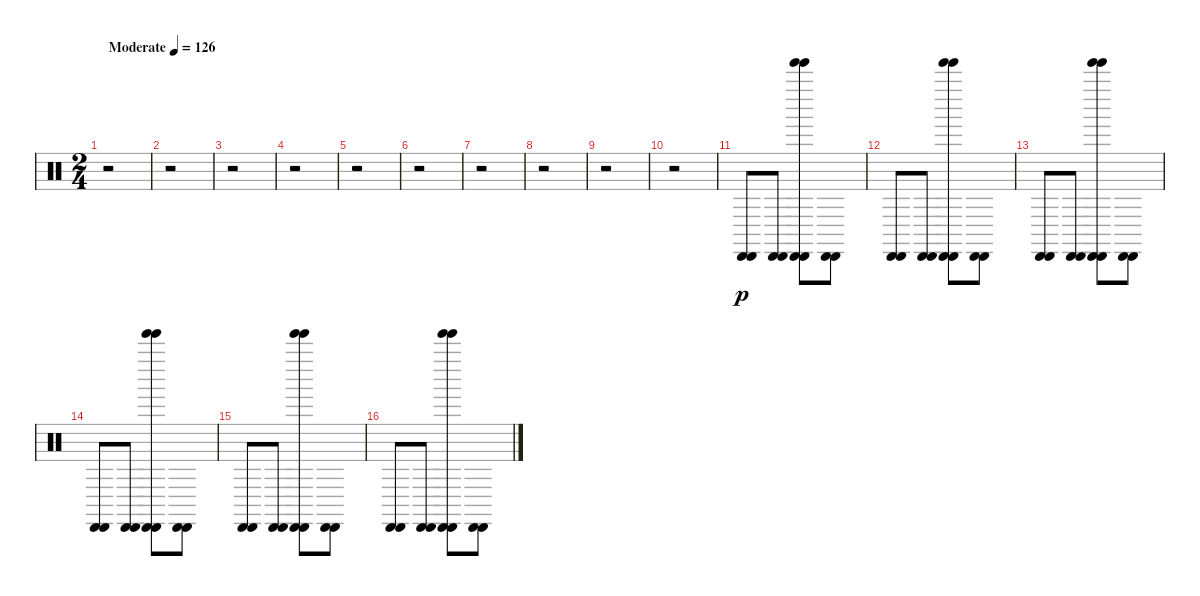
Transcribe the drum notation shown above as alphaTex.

\track "" {instrument percussion}
\staff {score}
\articulation defaults
\ts (2 4)
\tempo (126 "Moderate")
\clef neutral
\ks c
r.2{dy p} |
r.2 |
r.2 |
r.2 |
r.2 |
r.2 |
r.2 |
r.2 |
r.2 |
r.2 |
("Cabasa (hit)" "Cabasa (hit)").8 ("Cabasa (hit)" "Cabasa (hit)").8 ("Tinkle Bell (hit)" "Cabasa (hit)" "Tinkle Bell (hit)" "Cabasa (hit)").8 ("Cabasa (hit)" "Cabasa (hit)").8 |
("Cabasa (hit)" "Cabasa (hit)").8 ("Cabasa (hit)" "Cabasa (hit)").8 ("Tinkle Bell (hit)" "Cabasa (hit)" "Tinkle Bell (hit)" "Cabasa (hit)").8 ("Cabasa (hit)" "Cabasa (hit)").8 |
("Cabasa (hit)" "Cabasa (hit)").8 ("Cabasa (hit)" "Cabasa (hit)").8 ("Tinkle Bell (hit)" "Cabasa (hit)" "Tinkle Bell (hit)" "Cabasa (hit)").8 ("Cabasa (hit)" "Cabasa (hit)").8 |
("Cabasa (hit)" "Cabasa (hit)").8 ("Cabasa (hit)" "Cabasa (hit)").8 ("Tinkle Bell (hit)" "Cabasa (hit)" "Tinkle Bell (hit)" "Cabasa (hit)").8 ("Cabasa (hit)" "Cabasa (hit)").8 |
("Cabasa (hit)" "Cabasa (hit)").8 ("Cabasa (hit)" "Cabasa (hit)").8 ("Tinkle Bell (hit)" "Cabasa (hit)" "Tinkle Bell (hit)" "Cabasa (hit)").8 ("Cabasa (hit)" "Cabasa (hit)").8 |
("Cabasa (hit)" "Cabasa (hit)").8 ("Cabasa (hit)" "Cabasa (hit)").8 ("Tinkle Bell (hit)" "Cabasa (hit)" "Tinkle Bell (hit)" "Cabasa (hit)").8 ("Cabasa (hit)" "Cabasa (hit)").8
